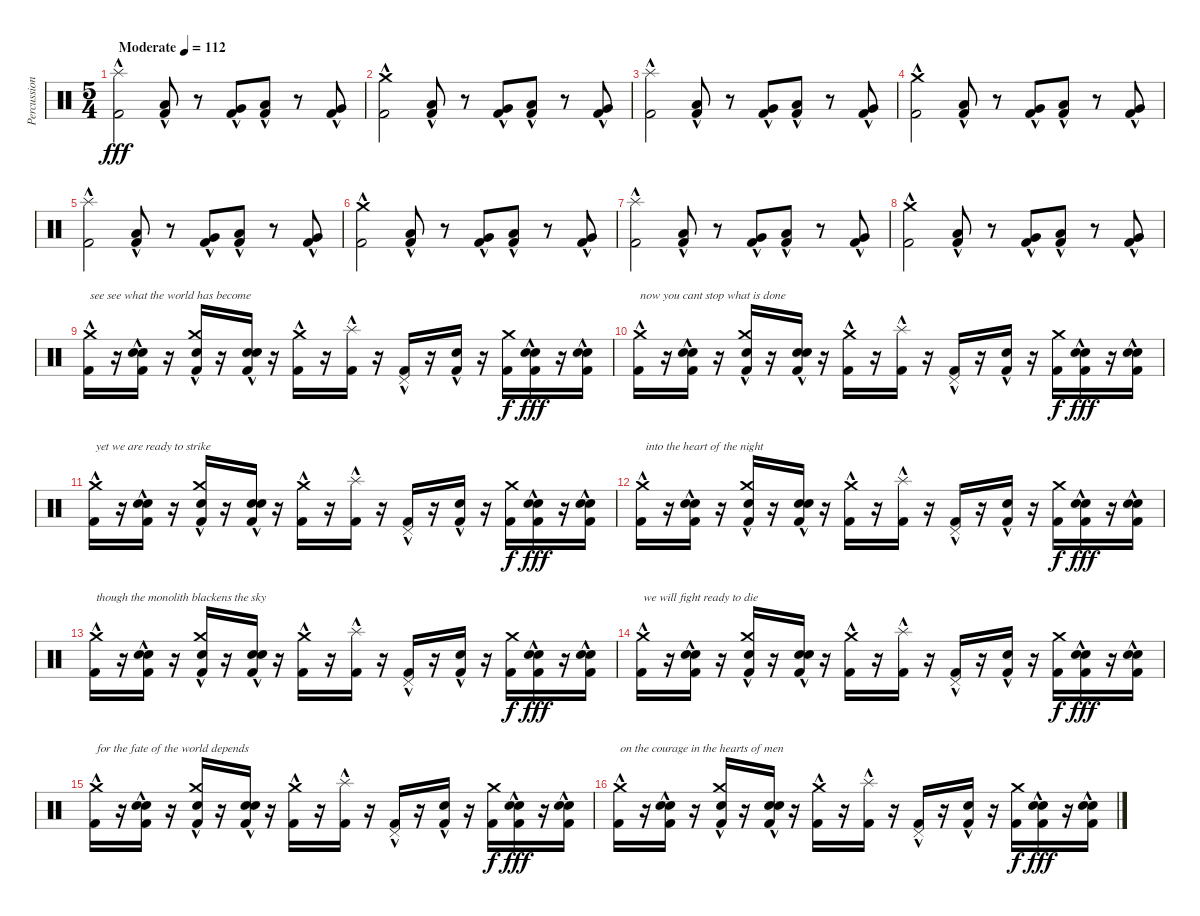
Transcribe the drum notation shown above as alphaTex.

\track ("Percussion" "Percussion") {instrument percussion}
\staff {score}
\articulation defaults
\ts (5 4)
\tempo (112 "Moderate")
\clef neutral
\ks c
("Splash (hit)"{hac} "Kick (hit) 2"{hac}).2{dy fff} ("Low Tom (hit)"{hac} "Kick (hit) 2"{hac}).8 r.8 ("Very Low Tom (hit)"{hac} "Kick (hit) 2"{hac}).8 ("Low Floor Tom (hit)"{hac} "Kick (hit) 2"{hac}).8 r.8 ("Kick (hit) 2"{hac} "Very Low Tom (hit)"{hac}).8 |
("Crash medium (hit)"{hac} "Kick (hit) 2"{hac}).2 ("Low Tom (hit)"{hac} "Kick (hit) 2"{hac}).8 r.8 ("Very Low Tom (hit)"{hac} "Kick (hit) 2"{hac}).8 ("Low Floor Tom (hit)"{hac} "Kick (hit) 2"{hac}).8 r.8 ("Kick (hit) 2"{hac} "Very Low Tom (hit)"{hac}).8 |
("Splash (hit)"{hac} "Kick (hit) 2"{hac}).2 ("Kick (hit) 2"{hac} "Low Tom (hit)"{hac}).8 r.8 ("Kick (hit) 2"{hac} "Very Low Tom (hit)"{hac}).8 ("Kick (hit) 2"{hac} "Low Floor Tom (hit)"{hac}).8 r.8 ("Kick (hit) 2"{hac} "Very Low Tom (hit)"{hac}).8 |
("Crash medium (hit)"{hac} "Kick (hit) 2"{hac}).2 ("Kick (hit) 2"{hac} "Low Tom (hit)"{hac}).8 r.8 ("Kick (hit) 2"{hac} "Very Low Tom (hit)"{hac}).8 ("Kick (hit) 2"{hac} "Low Floor Tom (hit)"{hac}).8 r.8 ("Kick (hit) 2"{hac} "Very Low Tom (hit)"{hac}).8 |
("Splash (hit)"{hac} "Kick (hit) 2"{hac}).2 ("Low Tom (hit)"{hac} "Kick (hit) 2"{hac}).8 r.8 ("Very Low Tom (hit)"{hac} "Kick (hit) 2"{hac}).8 ("Low Floor Tom (hit)"{hac} "Kick (hit) 2"{hac}).8 r.8 ("Kick (hit) 2"{hac} "Very Low Tom (hit)"{hac}).8 |
("Crash medium (hit)"{hac} "Kick (hit) 2"{hac}).2 ("Low Tom (hit)"{hac} "Kick (hit) 2"{hac}).8 r.8 ("Very Low Tom (hit)"{hac} "Kick (hit) 2"{hac}).8 ("Low Floor Tom (hit)"{hac} "Kick (hit) 2"{hac}).8 r.8 ("Kick (hit) 2"{hac} "Very Low Tom (hit)"{hac}).8 |
("Splash (hit)"{hac} "Kick (hit) 2"{hac}).2 ("Kick (hit) 2"{hac} "Low Tom (hit)"{hac}).8 r.8 ("Kick (hit) 2"{hac} "Very Low Tom (hit)"{hac}).8 ("Kick (hit) 2"{hac} "Low Floor Tom (hit)"{hac}).8 r.8 ("Kick (hit) 2"{hac} "Very Low Tom (hit)"{hac}).8 |
("Crash medium (hit)"{hac} "Kick (hit) 2"{hac}).2 ("Kick (hit) 2"{hac} "Low Tom (hit)"{hac}).8 r.8 ("Kick (hit) 2"{hac} "Very Low Tom (hit)"{hac}).8 ("Kick (hit) 2"{hac} "Low Floor Tom (hit)"{hac}).8 r.8 ("Kick (hit) 2"{hac} "Very Low Tom (hit)"{hac}).8 |
("Crash medium (hit)" "Kick (hit) 2"{hac}).16{txt "see see what the world has become"} r.16 ("Electric Snare (hit)"{hac} "Snare (hit) 2"{hac} "Kick (hit) 2"{hac}).16 r.16 ("Electric Snare (hit)"{hac} "Crash medium (hit)" "Kick (hit) 2"{hac}).16 r.16 ("Electric Snare (hit)"{hac} "Snare (hit) 2"{hac} "Kick (hit) 2").16 r.16 ("Crash medium (hit)"{hac} "Kick (hit) 2").16 r.16 ("Splash (hit)"{hac} "Kick (hit) 2").16 r.16 ("Pedal Hi-Hat (hit)"{hac} "Kick (hit) 2").16 r.16 ("Snare (hit) 2"{hac} "Kick (hit) 2").16 r.16 ("Crash medium (hit)" "Kick (hit) 2").16{dy f} ("Electric Snare (hit)"{hac} "Snare (hit) 2"{hac} "Kick (hit) 2"{hac}).16{dy fff} r.16 ("Electric Snare (hit)"{hac} "Snare (hit) 2" "Kick (hit) 2"{hac}).16 |
("Crash medium (hit)" "Kick (hit) 2"{hac}).16{txt "now you cant stop what is done"} r.16 ("Electric Snare (hit)"{hac} "Snare (hit) 2"{hac} "Kick (hit) 2"{hac}).16 r.16 ("Electric Snare (hit)"{hac} "Crash medium (hit)" "Kick (hit) 2"{hac}).16 r.16 ("Electric Snare (hit)"{hac} "Snare (hit) 2"{hac} "Kick (hit) 2").16 r.16 ("Crash medium (hit)"{hac} "Kick (hit) 2").16 r.16 ("Splash (hit)"{hac} "Kick (hit) 2").16 r.16 ("Pedal Hi-Hat (hit)"{hac} "Kick (hit) 2").16 r.16 ("Snare (hit) 2"{hac} "Kick (hit) 2").16 r.16 ("Crash medium (hit)" "Kick (hit) 2").16{dy f} ("Electric Snare (hit)"{hac} "Snare (hit) 2"{hac} "Kick (hit) 2"{hac}).16{dy fff} r.16 ("Electric Snare (hit)"{hac} "Snare (hit) 2" "Kick (hit) 2"{hac}).16 |
("Crash medium (hit)" "Kick (hit) 2"{hac}).16{txt "yet we are ready to strike"} r.16 ("Electric Snare (hit)"{hac} "Snare (hit) 2"{hac} "Kick (hit) 2"{hac}).16 r.16 ("Electric Snare (hit)"{hac} "Crash medium (hit)" "Kick (hit) 2"{hac}).16 r.16 ("Electric Snare (hit)"{hac} "Snare (hit) 2"{hac} "Kick (hit) 2").16 r.16 ("Crash medium (hit)"{hac} "Kick (hit) 2").16 r.16 ("Splash (hit)"{hac} "Kick (hit) 2").16 r.16 ("Pedal Hi-Hat (hit)"{hac} "Kick (hit) 2").16 r.16 ("Snare (hit) 2"{hac} "Kick (hit) 2").16 r.16 ("Crash medium (hit)" "Kick (hit) 2").16{dy f} ("Electric Snare (hit)"{hac} "Snare (hit) 2"{hac} "Kick (hit) 2"{hac}).16{dy fff} r.16 ("Electric Snare (hit)"{hac} "Snare (hit) 2" "Kick (hit) 2"{hac}).16 |
("Crash medium (hit)" "Kick (hit) 2"{hac}).16{txt " into the heart of the night"} r.16 ("Electric Snare (hit)"{hac} "Snare (hit) 2"{hac} "Kick (hit) 2"{hac}).16 r.16 ("Electric Snare (hit)"{hac} "Crash medium (hit)" "Kick (hit) 2"{hac}).16 r.16 ("Electric Snare (hit)"{hac} "Snare (hit) 2"{hac} "Kick (hit) 2").16 r.16 ("Crash medium (hit)"{hac} "Kick (hit) 2").16 r.16 ("Splash (hit)"{hac} "Kick (hit) 2").16 r.16 ("Pedal Hi-Hat (hit)"{hac} "Kick (hit) 2").16 r.16 ("Snare (hit) 2"{hac} "Kick (hit) 2").16 r.16 ("Crash medium (hit)" "Kick (hit) 2").16{dy f} ("Electric Snare (hit)"{hac} "Snare (hit) 2"{hac} "Kick (hit) 2"{hac}).16{dy fff} r.16 ("Electric Snare (hit)"{hac} "Snare (hit) 2" "Kick (hit) 2"{hac}).16 |
("Crash medium (hit)" "Kick (hit) 2"{hac}).16{txt "though the monolith blackens the sky"} r.16 ("Electric Snare (hit)"{hac} "Snare (hit) 2"{hac} "Kick (hit) 2"{hac}).16 r.16 ("Electric Snare (hit)"{hac} "Crash medium (hit)" "Kick (hit) 2"{hac}).16 r.16 ("Electric Snare (hit)"{hac} "Snare (hit) 2"{hac} "Kick (hit) 2").16 r.16 ("Crash medium (hit)"{hac} "Kick (hit) 2").16 r.16 ("Splash (hit)"{hac} "Kick (hit) 2").16 r.16 ("Pedal Hi-Hat (hit)"{hac} "Kick (hit) 2").16 r.16 ("Snare (hit) 2"{hac} "Kick (hit) 2").16 r.16 ("Crash medium (hit)" "Kick (hit) 2").16{dy f} ("Electric Snare (hit)"{hac} "Snare (hit) 2"{hac} "Kick (hit) 2"{hac}).16{dy fff} r.16 ("Electric Snare (hit)"{hac} "Snare (hit) 2" "Kick (hit) 2"{hac}).16 |
("Crash medium (hit)" "Kick (hit) 2"{hac}).16{txt "we will fight ready to die"} r.16 ("Electric Snare (hit)"{hac} "Snare (hit) 2"{hac} "Kick (hit) 2"{hac}).16 r.16 ("Electric Snare (hit)"{hac} "Crash medium (hit)" "Kick (hit) 2"{hac}).16 r.16 ("Electric Snare (hit)"{hac} "Snare (hit) 2"{hac} "Kick (hit) 2").16 r.16 ("Crash medium (hit)"{hac} "Kick (hit) 2").16 r.16 ("Splash (hit)"{hac} "Kick (hit) 2").16 r.16 ("Pedal Hi-Hat (hit)"{hac} "Kick (hit) 2").16 r.16 ("Snare (hit) 2"{hac} "Kick (hit) 2").16 r.16 ("Crash medium (hit)" "Kick (hit) 2").16{dy f} ("Electric Snare (hit)"{hac} "Snare (hit) 2"{hac} "Kick (hit) 2"{hac}).16{dy fff} r.16 ("Electric Snare (hit)"{hac} "Snare (hit) 2" "Kick (hit) 2"{hac}).16 |
("Crash medium (hit)" "Kick (hit) 2"{hac}).16{txt "for the fate of the world depends"} r.16 ("Electric Snare (hit)"{hac} "Snare (hit) 2"{hac} "Kick (hit) 2"{hac}).16 r.16 ("Electric Snare (hit)"{hac} "Crash medium (hit)" "Kick (hit) 2"{hac}).16 r.16 ("Electric Snare (hit)"{hac} "Snare (hit) 2"{hac} "Kick (hit) 2").16 r.16 ("Crash medium (hit)"{hac} "Kick (hit) 2").16 r.16 ("Splash (hit)"{hac} "Kick (hit) 2").16 r.16 ("Pedal Hi-Hat (hit)"{hac} "Kick (hit) 2").16 r.16 ("Snare (hit) 2"{hac} "Kick (hit) 2").16 r.16 ("Crash medium (hit)" "Kick (hit) 2").16{dy f} ("Electric Snare (hit)"{hac} "Snare (hit) 2"{hac} "Kick (hit) 2"{hac}).16{dy fff} r.16 ("Electric Snare (hit)"{hac} "Snare (hit) 2" "Kick (hit) 2"{hac}).16 |
("Crash medium (hit)" "Kick (hit) 2"{hac}).16{txt "on the courage in the hearts of men"} r.16 ("Electric Snare (hit)"{hac} "Snare (hit) 2"{hac} "Kick (hit) 2"{hac}).16 r.16 ("Electric Snare (hit)"{hac} "Crash medium (hit)" "Kick (hit) 2"{hac}).16 r.16 ("Electric Snare (hit)"{hac} "Snare (hit) 2"{hac} "Kick (hit) 2").16 r.16 ("Crash medium (hit)"{hac} "Kick (hit) 2").16 r.16 ("Splash (hit)"{hac} "Kick (hit) 2").16 r.16 ("Pedal Hi-Hat (hit)"{hac} "Kick (hit) 2").16 r.16 ("Snare (hit) 2"{hac} "Kick (hit) 2").16 r.16 ("Crash medium (hit)" "Kick (hit) 2").16{dy f} ("Electric Snare (hit)"{hac} "Snare (hit) 2"{hac} "Kick (hit) 2"{hac}).16{dy fff} r.16 ("Electric Snare (hit)"{hac} "Snare (hit) 2" "Kick (hit) 2"{hac}).16
